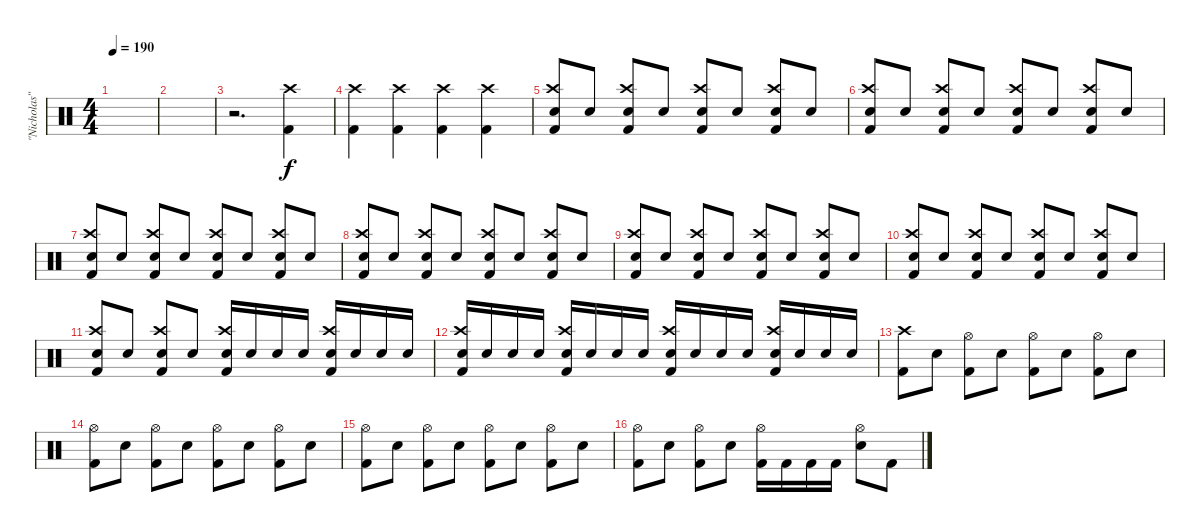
\track ("\"Nicholas\"" "\"Nicholas\"") {instrument percussion}
\staff {score}
\articulation defaults
\ts (4 4)
\tempo 190
\clef neutral
\ks c
|
|
r.2{d} ("Kick (hit) 2" "Crash high (hit)").4 |
("Kick (hit) 2" "Crash high (hit)").4 ("Kick (hit) 2" "Crash high (hit)").4 ("Kick (hit) 2" "Crash high (hit)").4 ("Kick (hit) 2" "Crash high (hit)").4 |
("Kick (hit) 2" "Snare (hit) 2" "Crash high (hit)").8 "Snare (hit) 2".8 ("Kick (hit) 2" "Snare (hit) 2" "Crash high (hit)").8 "Snare (hit) 2".8 ("Kick (hit) 2" "Snare (hit) 2" "Crash high (hit)").8 "Snare (hit) 2".8 ("Kick (hit) 2" "Snare (hit) 2" "Crash high (hit)").8 "Snare (hit) 2".8 |
("Kick (hit) 2" "Snare (hit) 2" "Crash high (hit)").8 "Snare (hit) 2".8 ("Kick (hit) 2" "Snare (hit) 2" "Crash high (hit)").8 "Snare (hit) 2".8 ("Kick (hit) 2" "Snare (hit) 2" "Crash high (hit)").8 "Snare (hit) 2".8 ("Kick (hit) 2" "Snare (hit) 2" "Crash high (hit)").8 "Snare (hit) 2".8 |
("Kick (hit) 2" "Snare (hit) 2" "Crash high (hit)").8 "Snare (hit) 2".8 ("Kick (hit) 2" "Snare (hit) 2" "Crash high (hit)").8 "Snare (hit) 2".8 ("Kick (hit) 2" "Snare (hit) 2" "Crash high (hit)").8 "Snare (hit) 2".8 ("Kick (hit) 2" "Snare (hit) 2" "Crash high (hit)").8 "Snare (hit) 2".8 |
("Kick (hit) 2" "Snare (hit) 2" "Crash high (hit)").8 "Snare (hit) 2".8 ("Kick (hit) 2" "Snare (hit) 2" "Crash high (hit)").8 "Snare (hit) 2".8 ("Kick (hit) 2" "Snare (hit) 2" "Crash high (hit)").8 "Snare (hit) 2".8 ("Kick (hit) 2" "Snare (hit) 2" "Crash high (hit)").8 "Snare (hit) 2".8 |
("Kick (hit) 2" "Snare (hit) 2" "Crash high (hit)").8 "Snare (hit) 2".8 ("Kick (hit) 2" "Snare (hit) 2" "Crash high (hit)").8 "Snare (hit) 2".8 ("Kick (hit) 2" "Snare (hit) 2" "Crash high (hit)").8 "Snare (hit) 2".8 ("Kick (hit) 2" "Snare (hit) 2" "Crash high (hit)").8 "Snare (hit) 2".8 |
("Kick (hit) 2" "Snare (hit) 2" "Crash high (hit)").8 "Snare (hit) 2".8 ("Kick (hit) 2" "Snare (hit) 2" "Crash high (hit)").8 "Snare (hit) 2".8 ("Kick (hit) 2" "Snare (hit) 2" "Crash high (hit)").8 "Snare (hit) 2".8 ("Kick (hit) 2" "Snare (hit) 2" "Crash high (hit)").8 "Snare (hit) 2".8 |
("Kick (hit) 2" "Snare (hit) 2" "Crash high (hit)").8 "Snare (hit) 2".8 ("Kick (hit) 2" "Snare (hit) 2" "Crash high (hit)").8 "Snare (hit) 2".8 ("Kick (hit) 2" "Snare (hit) 2" "Crash high (hit)").16 "Snare (hit) 2".16 "Snare (hit) 2".16 "Snare (hit) 2".16 ("Kick (hit) 2" "Snare (hit) 2" "Crash high (hit)").16 "Snare (hit) 2".16 "Snare (hit) 2".16 "Snare (hit) 2".16 |
("Kick (hit) 2" "Snare (hit) 2" "Crash high (hit)").16 "Snare (hit) 2".16 "Snare (hit) 2".16 "Snare (hit) 2".16 ("Kick (hit) 2" "Snare (hit) 2" "Crash high (hit)").16 "Snare (hit) 2".16 "Snare (hit) 2".16 "Snare (hit) 2".16 ("Kick (hit) 2" "Snare (hit) 2" "Crash high (hit)").16 "Snare (hit) 2".16 "Snare (hit) 2".16 "Snare (hit) 2".16 ("Kick (hit) 2" "Snare (hit) 2" "Crash high (hit)").16 "Snare (hit) 2".16 "Snare (hit) 2".16 "Snare (hit) 2".16 |
("Kick (hit) 2" "Crash high (hit)").8 "Snare (hit) 2".8 ("Kick (hit) 2" "Hi-Hat (open)").8 "Snare (hit) 2".8 ("Kick (hit) 2" "Hi-Hat (open)").8 "Snare (hit) 2".8 ("Kick (hit) 2" "Hi-Hat (open)").8 "Snare (hit) 2".8 |
("Kick (hit) 2" "Hi-Hat (open)").8 "Snare (hit) 2".8 ("Kick (hit) 2" "Hi-Hat (open)").8 "Snare (hit) 2".8 ("Kick (hit) 2" "Hi-Hat (open)").8 "Snare (hit) 2".8 ("Kick (hit) 2" "Hi-Hat (open)").8 "Snare (hit) 2".8 |
("Kick (hit) 2" "Hi-Hat (open)").8 "Snare (hit) 2".8 ("Kick (hit) 2" "Hi-Hat (open)").8 "Snare (hit) 2".8 ("Kick (hit) 2" "Hi-Hat (open)").8 "Snare (hit) 2".8 ("Kick (hit) 2" "Hi-Hat (open)").8 "Snare (hit) 2".8 |
("Kick (hit) 2" "Hi-Hat (open)").8 "Snare (hit) 2".8 ("Kick (hit) 2" "Hi-Hat (open)").8 "Snare (hit) 2".8 ("Kick (hit) 2" "Hi-Hat (open)").16 "Kick (hit) 2".16 "Kick (hit) 2".16 "Kick (hit) 2".16 ("Snare (hit) 2" "Hi-Hat (open)").8 "Kick (hit) 2".8
